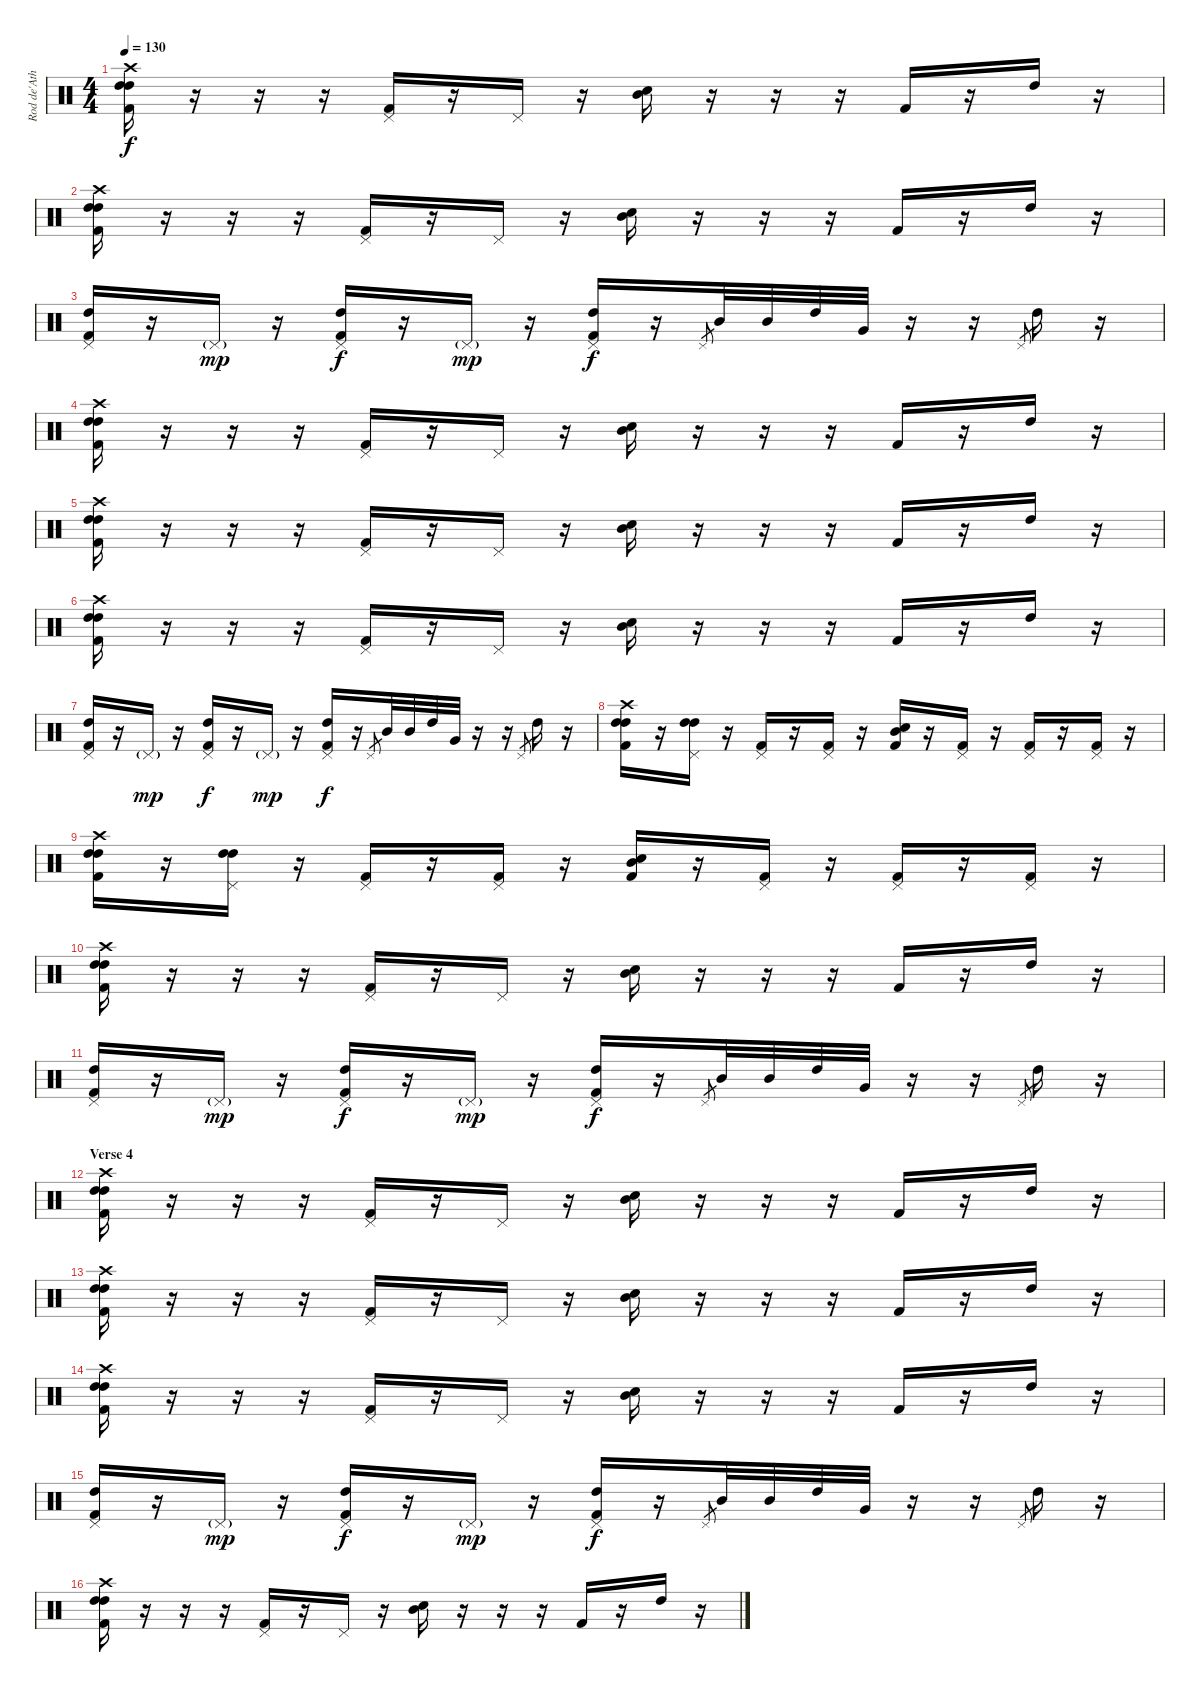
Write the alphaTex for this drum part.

\track ("Rod de'Ath" "Rod de'Ath") {instrument percussion}
\staff {score}
\articulation defaults
\ts (4 4)
\tempo 130
\clef neutral
\ks c
("Crash high (hit)" "High Tom (hit)" "High Tom (hit)" "Kick (hit) 2").16{dy f} r.16 r.16 r.16 ("Pedal Hi-Hat (hit)" "Kick (hit) 2").16 r.16 "Pedal Hi-Hat (hit)".16 r.16 ("Electric Snare (hit)" "Mid Tom (hit)").16 r.16 r.16 r.16 "Kick (hit) 2".16 r.16 "High Tom (hit)".16 r.16 |
("Crash high (hit)" "High Tom (hit)" "High Tom (hit)" "Kick (hit) 2").16 r.16 r.16 r.16 ("Pedal Hi-Hat (hit)" "Kick (hit) 2").16 r.16 "Pedal Hi-Hat (hit)".16 r.16 ("Electric Snare (hit)" "Mid Tom (hit)").16 r.16 r.16 r.16 "Kick (hit) 2".16 r.16 "High Tom (hit)".16 r.16 |
("Pedal Hi-Hat (hit)" "High Tom (hit)" "Kick (hit) 2").16 r.16 "Pedal Hi-Hat (hit)"{g}.16{dy mp} r.16 ("Pedal Hi-Hat (hit)" "High Tom (hit)" "Kick (hit) 2").16{dy f} r.16 "Pedal Hi-Hat (hit)"{g}.16{dy mp} r.16 ("Pedal Hi-Hat (hit)" "High Tom (hit)" "Kick (hit) 2").16{dy f} r.16 "Pedal Hi-Hat (hit)".8{gr} "Mid Tom (hit)".32 "Mid Tom (hit)".32 "High Tom (hit)".32 "Very Low Tom (hit)".32 r.16 r.16 "Pedal Hi-Hat (hit)".8{gr} "High Tom (hit)".16 r.16 |
("Crash high (hit)" "High Tom (hit)" "High Tom (hit)" "Kick (hit) 2").16 r.16 r.16 r.16 ("Pedal Hi-Hat (hit)" "Kick (hit) 2").16 r.16 "Pedal Hi-Hat (hit)".16 r.16 ("Electric Snare (hit)" "Mid Tom (hit)").16 r.16 r.16 r.16 "Kick (hit) 2".16 r.16 "High Tom (hit)".16 r.16 |
("Crash high (hit)" "High Tom (hit)" "High Tom (hit)" "Kick (hit) 2").16 r.16 r.16 r.16 ("Pedal Hi-Hat (hit)" "Kick (hit) 2").16 r.16 "Pedal Hi-Hat (hit)".16 r.16 ("Electric Snare (hit)" "Mid Tom (hit)").16 r.16 r.16 r.16 "Kick (hit) 2".16 r.16 "High Tom (hit)".16 r.16 |
("Crash high (hit)" "High Tom (hit)" "High Tom (hit)" "Kick (hit) 2").16 r.16 r.16 r.16 ("Pedal Hi-Hat (hit)" "Kick (hit) 2").16 r.16 "Pedal Hi-Hat (hit)".16 r.16 ("Electric Snare (hit)" "Mid Tom (hit)").16 r.16 r.16 r.16 "Kick (hit) 2".16 r.16 "High Tom (hit)".16 r.16 |
("Pedal Hi-Hat (hit)" "High Tom (hit)" "Kick (hit) 2").16 r.16 "Pedal Hi-Hat (hit)"{g}.16{dy mp} r.16 ("Pedal Hi-Hat (hit)" "High Tom (hit)" "Kick (hit) 2").16{dy f} r.16 "Pedal Hi-Hat (hit)"{g}.16{dy mp} r.16 ("Pedal Hi-Hat (hit)" "High Tom (hit)" "Kick (hit) 2").16{dy f} r.16 "Pedal Hi-Hat (hit)".8{gr} "Mid Tom (hit)".32 "Mid Tom (hit)".32 "High Tom (hit)".32 "Very Low Tom (hit)".32 r.16 r.16 "Pedal Hi-Hat (hit)".8{gr} "High Tom (hit)".16 r.16 |
("Crash high (hit)" "High Tom (hit)" "High Tom (hit)" "Kick (hit) 2").16 r.16 ("Pedal Hi-Hat (hit)" "High Tom (hit)" "High Tom (hit)").16 r.16 ("Pedal Hi-Hat (hit)" "Kick (hit) 2").16 r.16 ("Pedal Hi-Hat (hit)" "Kick (hit) 2").16 r.16 ("Snare (hit) 2" "Mid Tom (hit)" "Kick (hit) 2").16 r.16 ("Pedal Hi-Hat (hit)" "Kick (hit) 2").16 r.16 ("Pedal Hi-Hat (hit)" "Kick (hit) 2").16 r.16 ("Pedal Hi-Hat (hit)" "Kick (hit) 2").16 r.16 |
("Crash high (hit)" "High Tom (hit)" "High Tom (hit)" "Kick (hit) 2").16 r.16 ("Pedal Hi-Hat (hit)" "High Tom (hit)" "High Tom (hit)").16 r.16 ("Pedal Hi-Hat (hit)" "Kick (hit) 2").16 r.16 ("Pedal Hi-Hat (hit)" "Kick (hit) 2").16 r.16 ("Snare (hit) 2" "Mid Tom (hit)" "Kick (hit) 2").16 r.16 ("Pedal Hi-Hat (hit)" "Kick (hit) 2").16 r.16 ("Pedal Hi-Hat (hit)" "Kick (hit) 2").16 r.16 ("Pedal Hi-Hat (hit)" "Kick (hit) 2").16 r.16 |
("Crash high (hit)" "High Tom (hit)" "High Tom (hit)" "Kick (hit) 2").16 r.16 r.16 r.16 ("Pedal Hi-Hat (hit)" "Kick (hit) 2").16 r.16 "Pedal Hi-Hat (hit)".16 r.16 ("Electric Snare (hit)" "Mid Tom (hit)").16 r.16 r.16 r.16 "Kick (hit) 2".16 r.16 "High Tom (hit)".16 r.16 |
("Pedal Hi-Hat (hit)" "High Tom (hit)" "Kick (hit) 2").16 r.16 "Pedal Hi-Hat (hit)"{g}.16{dy mp} r.16 ("Pedal Hi-Hat (hit)" "High Tom (hit)" "Kick (hit) 2").16{dy f} r.16 "Pedal Hi-Hat (hit)"{g}.16{dy mp} r.16 ("Pedal Hi-Hat (hit)" "High Tom (hit)" "Kick (hit) 2").16{dy f} r.16 "Pedal Hi-Hat (hit)".8{gr} "Mid Tom (hit)".32 "Mid Tom (hit)".32 "High Tom (hit)".32 "Very Low Tom (hit)".32 r.16 r.16 "Pedal Hi-Hat (hit)".8{gr} "High Tom (hit)".16 r.16 |
\section ("" "Verse 4")
("Crash high (hit)" "High Tom (hit)" "High Tom (hit)" "Kick (hit) 2").16 r.16 r.16 r.16 ("Pedal Hi-Hat (hit)" "Kick (hit) 2").16 r.16 "Pedal Hi-Hat (hit)".16 r.16 ("Electric Snare (hit)" "Mid Tom (hit)").16 r.16 r.16 r.16 "Kick (hit) 2".16 r.16 "High Tom (hit)".16 r.16 |
("Crash high (hit)" "High Tom (hit)" "High Tom (hit)" "Kick (hit) 2").16 r.16 r.16 r.16 ("Pedal Hi-Hat (hit)" "Kick (hit) 2").16 r.16 "Pedal Hi-Hat (hit)".16 r.16 ("Electric Snare (hit)" "Mid Tom (hit)").16 r.16 r.16 r.16 "Kick (hit) 2".16 r.16 "High Tom (hit)".16 r.16 |
("Crash high (hit)" "High Tom (hit)" "High Tom (hit)" "Kick (hit) 2").16 r.16 r.16 r.16 ("Pedal Hi-Hat (hit)" "Kick (hit) 2").16 r.16 "Pedal Hi-Hat (hit)".16 r.16 ("Electric Snare (hit)" "Mid Tom (hit)").16 r.16 r.16 r.16 "Kick (hit) 2".16 r.16 "High Tom (hit)".16 r.16 |
("Pedal Hi-Hat (hit)" "High Tom (hit)" "Kick (hit) 2").16 r.16 "Pedal Hi-Hat (hit)"{g}.16{dy mp} r.16 ("Pedal Hi-Hat (hit)" "High Tom (hit)" "Kick (hit) 2").16{dy f} r.16 "Pedal Hi-Hat (hit)"{g}.16{dy mp} r.16 ("Pedal Hi-Hat (hit)" "High Tom (hit)" "Kick (hit) 2").16{dy f} r.16 "Pedal Hi-Hat (hit)".8{gr} "Mid Tom (hit)".32 "Mid Tom (hit)".32 "High Tom (hit)".32 "Very Low Tom (hit)".32 r.16 r.16 "Pedal Hi-Hat (hit)".8{gr} "High Tom (hit)".16 r.16 |
("Crash high (hit)" "High Tom (hit)" "High Tom (hit)" "Kick (hit) 2").16 r.16 r.16 r.16 ("Pedal Hi-Hat (hit)" "Kick (hit) 2").16 r.16 "Pedal Hi-Hat (hit)".16 r.16 ("Electric Snare (hit)" "Mid Tom (hit)").16 r.16 r.16 r.16 "Kick (hit) 2".16 r.16 "High Tom (hit)".16 r.16
